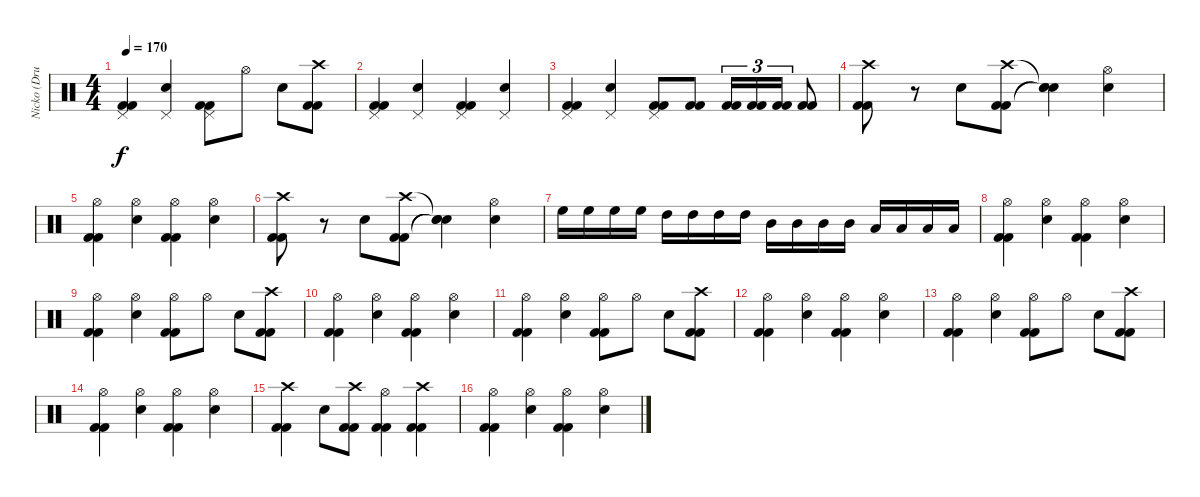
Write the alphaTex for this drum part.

\track ("Nicko (Drums)" "Nicko (Dru") {instrument percussion}
\staff {score}
\articulation defaults
\ts (4 4)
\tempo 170
\clef neutral
\ks c
("Pedal Hi-Hat (hit)" "Kick (hit) 2" "Kick (hit) 2").4{dy f} ("Pedal Hi-Hat (hit)" "Snare (hit) 2").4 ("Pedal Hi-Hat (hit)" "Kick (hit) 2" "Kick (hit) 2").8 "Hi-Hat (open)".8 "Snare (hit) 2".8 ("Crash high (hit)" "Kick (hit) 2" "Kick (hit) 2").8 |
("Pedal Hi-Hat (hit)" "Kick (hit) 2" "Kick (hit) 2").4 ("Pedal Hi-Hat (hit)" "Snare (hit) 2").4 ("Pedal Hi-Hat (hit)" "Kick (hit) 2" "Kick (hit) 2").4 ("Pedal Hi-Hat (hit)" "Snare (hit) 2").4 |
("Pedal Hi-Hat (hit)" "Kick (hit) 2" "Kick (hit) 2").4 ("Pedal Hi-Hat (hit)" "Snare (hit) 2").4 ("Pedal Hi-Hat (hit)" "Kick (hit) 2" "Kick (hit) 2").8 ("Kick (hit) 2" "Kick (hit) 2").8 ("Kick (hit) 2" "Kick (hit) 2").16{tu (3 2)} ("Kick (hit) 2" "Kick (hit) 2").16{tu (3 2)} ("Kick (hit) 2" "Kick (hit) 2").16{tu (3 2)} ("Kick (hit) 2" "Kick (hit) 2").8 |
("Crash high (hit)" "Kick (hit) 2" "Kick (hit) 2").8 r.8 "Snare (hit) 2".8 ("Crash high (hit)" "Kick (hit) 2" "Kick (hit) 2").8 ("Snare (hit)"{t} "Snare (hit)"{t} "Snare (hit)"{t}).4 ("Hi-Hat (open)" "Snare (hit) 2").4 |
("Hi-Hat (open)" "Kick (hit) 2" "Kick (hit) 2").4 ("Hi-Hat (open)" "Snare (hit) 2").4 ("Hi-Hat (open)" "Kick (hit) 2" "Kick (hit) 2").4 ("Hi-Hat (open)" "Snare (hit) 2").4 |
("Crash high (hit)" "Kick (hit) 2" "Kick (hit) 2").8 r.8 "Snare (hit) 2".8 ("Crash high (hit)" "Kick (hit) 2" "Kick (hit) 2").8 ("Snare (hit)"{t} "Snare (hit)"{t} "Snare (hit)"{t}).4 ("Hi-Hat (open)" "Snare (hit) 2").4 |
"High Floor Tom (hit)".16 "High Floor Tom (hit)".16 "High Floor Tom (hit)".16 "High Floor Tom (hit)".16 "High Tom (hit)".16 "High Tom (hit)".16 "High Tom (hit)".16 "High Tom (hit)".16 "Mid Tom (hit)".16 "Mid Tom (hit)".16 "Mid Tom (hit)".16 "Mid Tom (hit)".16 "Low Tom (hit)".16 "Low Tom (hit)".16 "Low Tom (hit)".16 "Low Tom (hit)".16 |
("Hi-Hat (open)" "Kick (hit) 2" "Kick (hit) 2").4 ("Hi-Hat (open)" "Snare (hit) 2").4 ("Hi-Hat (open)" "Kick (hit) 2" "Kick (hit) 2").4 ("Hi-Hat (open)" "Snare (hit) 2").4 |
("Hi-Hat (open)" "Kick (hit) 2" "Kick (hit) 2").4 ("Hi-Hat (open)" "Snare (hit) 2").4 ("Hi-Hat (open)" "Kick (hit) 2" "Kick (hit) 2").8 "Hi-Hat (open)".8 "Snare (hit) 2".8 ("Crash high (hit)" "Kick (hit) 2" "Kick (hit) 2").8 |
("Hi-Hat (open)" "Kick (hit) 2" "Kick (hit) 2").4 ("Hi-Hat (open)" "Snare (hit) 2").4 ("Hi-Hat (open)" "Kick (hit) 2" "Kick (hit) 2").4 ("Hi-Hat (open)" "Snare (hit) 2").4 |
("Hi-Hat (open)" "Kick (hit) 2" "Kick (hit) 2").4 ("Hi-Hat (open)" "Snare (hit) 2").4 ("Hi-Hat (open)" "Kick (hit) 2" "Kick (hit) 2").8 "Hi-Hat (open)".8 "Snare (hit) 2".8 ("Crash high (hit)" "Kick (hit) 2" "Kick (hit) 2").8 |
("Hi-Hat (open)" "Kick (hit) 2" "Kick (hit) 2").4 ("Hi-Hat (open)" "Snare (hit) 2").4 ("Hi-Hat (open)" "Kick (hit) 2" "Kick (hit) 2").4 ("Hi-Hat (open)" "Snare (hit) 2").4 |
("Hi-Hat (open)" "Kick (hit) 2" "Kick (hit) 2").4 ("Hi-Hat (open)" "Snare (hit) 2").4 ("Hi-Hat (open)" "Kick (hit) 2" "Kick (hit) 2").8 "Hi-Hat (open)".8 "Snare (hit) 2".8 ("Crash high (hit)" "Kick (hit) 2" "Kick (hit) 2").8 |
("Hi-Hat (open)" "Kick (hit) 2" "Kick (hit) 2").4 ("Hi-Hat (open)" "Snare (hit) 2").4 ("Hi-Hat (open)" "Kick (hit) 2" "Kick (hit) 2").4 ("Hi-Hat (open)" "Snare (hit) 2").4 |
("Crash high (hit)" "Kick (hit) 2" "Kick (hit) 2").4 "Snare (hit) 2".8 ("Crash high (hit)" "Kick (hit) 2" "Kick (hit) 2").8 ("Hi-Hat (open)" "Kick (hit) 2" "Kick (hit) 2").4 ("Crash high (hit)" "Kick (hit) 2" "Kick (hit) 2").4 |
("Hi-Hat (open)" "Kick (hit) 2" "Kick (hit) 2").4 ("Hi-Hat (open)" "Snare (hit) 2").4 ("Hi-Hat (open)" "Kick (hit) 2" "Kick (hit) 2").4 ("Hi-Hat (open)" "Snare (hit) 2").4
